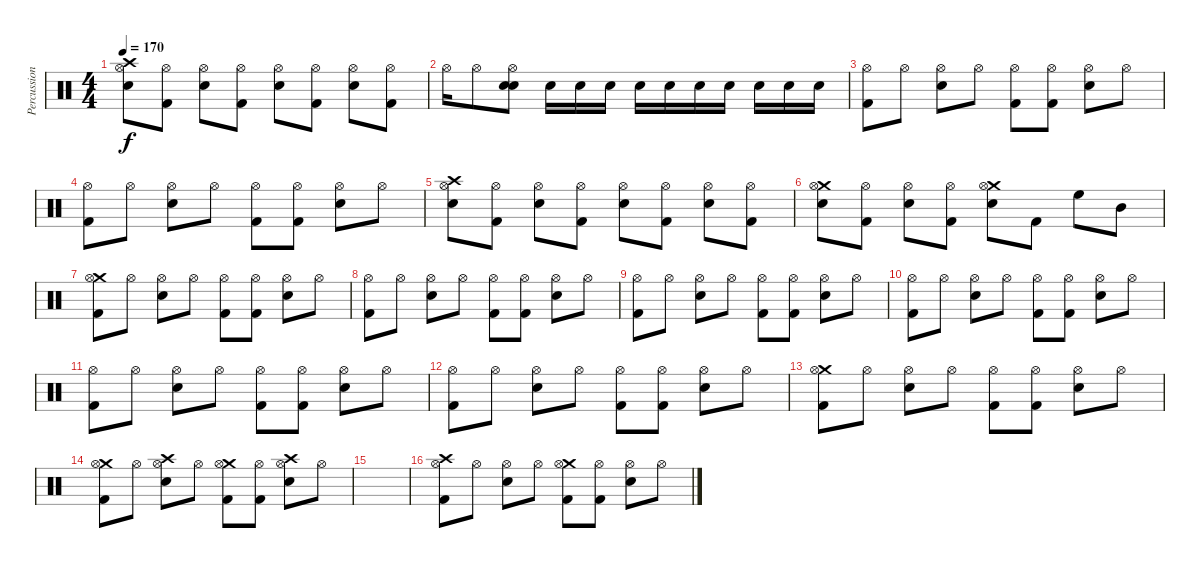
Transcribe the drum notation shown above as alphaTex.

\track ("Percussion" "Percussion") {instrument percussion}
\staff {score}
\articulation defaults
\ts (4 4)
\tempo 170
\clef neutral
\ks c
("Crash high (hit)" "Snare (hit) 2" "Hi-Hat (open)").8{dy f} ("Kick (hit) 2" "Hi-Hat (open)").8 ("Snare (hit) 2" "Hi-Hat (open)").8 ("Kick (hit) 2" "Hi-Hat (open)").8 ("Snare (hit) 2" "Hi-Hat (open)").8 ("Kick (hit) 2" "Hi-Hat (open)").8 ("Snare (hit) 2" "Hi-Hat (open)").8 ("Kick (hit) 2" "Hi-Hat (open)").8 |
"Hi-Hat (open)".16 "Hi-Hat (open)".8 ("Snare (hit)" "Snare (hit) 2" "Hi-Hat (open)").8 "Snare (hit) 2".16 "Snare (hit) 2".16 "Snare (hit) 2".16 "Snare (hit) 2".16 "Snare (hit) 2".16 "Snare (hit) 2".16 "Snare (hit) 2".16 "Snare (hit) 2".16 "Snare (hit) 2".16 "Snare (hit) 2".16 |
("Kick (hit) 2" "Hi-Hat (open)").8 "Hi-Hat (open)".8 ("Snare (hit) 2" "Hi-Hat (open)").8 "Hi-Hat (open)".8 ("Kick (hit) 2" "Hi-Hat (open)").8 ("Kick (hit) 2" "Hi-Hat (open)").8 ("Snare (hit) 2" "Hi-Hat (open)").8 "Hi-Hat (open)".8 |
("Kick (hit) 2" "Hi-Hat (open)").8 "Hi-Hat (open)".8 ("Snare (hit) 2" "Hi-Hat (open)").8 "Hi-Hat (open)".8 ("Kick (hit) 2" "Hi-Hat (open)").8 ("Kick (hit) 2" "Hi-Hat (open)").8 ("Snare (hit) 2" "Hi-Hat (open)").8 "Hi-Hat (open)".8 |
("Crash high (hit)" "Snare (hit) 2" "Hi-Hat (open)").8 ("Kick (hit) 2" "Hi-Hat (open)").8 ("Snare (hit) 2" "Hi-Hat (open)").8 ("Kick (hit) 2" "Hi-Hat (open)").8 ("Snare (hit) 2" "Hi-Hat (open)").8 ("Kick (hit) 2" "Hi-Hat (open)").8 ("Snare (hit) 2" "Hi-Hat (open)").8 ("Kick (hit) 2" "Hi-Hat (open)").8 |
("Crash medium (hit)" "Snare (hit) 2" "Hi-Hat (open)").8 ("Kick (hit) 2" "Hi-Hat (open)").8 ("Snare (hit) 2" "Hi-Hat (open)").8 ("Kick (hit) 2" "Hi-Hat (open)").8 ("Crash medium (hit)" "Snare (hit) 2" "Hi-Hat (open)").8 "Kick (hit) 2".8 "High Floor Tom (hit)".8 "Mid Tom (hit)".8 |
("Crash medium (hit)" "Kick (hit) 2" "Hi-Hat (open)").8 "Hi-Hat (open)".8 ("Snare (hit) 2" "Hi-Hat (open)").8 "Hi-Hat (open)".8 ("Kick (hit) 2" "Hi-Hat (open)").8 ("Kick (hit) 2" "Hi-Hat (open)").8 ("Snare (hit) 2" "Hi-Hat (open)").8 "Hi-Hat (open)".8 |
("Kick (hit) 2" "Hi-Hat (open)").8 "Hi-Hat (open)".8 ("Snare (hit) 2" "Hi-Hat (open)").8 "Hi-Hat (open)".8 ("Kick (hit) 2" "Hi-Hat (open)").8 ("Kick (hit) 2" "Hi-Hat (open)").8 ("Snare (hit) 2" "Hi-Hat (open)").8 "Hi-Hat (open)".8 |
("Kick (hit) 2" "Hi-Hat (open)").8 "Hi-Hat (open)".8 ("Snare (hit) 2" "Hi-Hat (open)").8 "Hi-Hat (open)".8 ("Kick (hit) 2" "Hi-Hat (open)").8 ("Kick (hit) 2" "Hi-Hat (open)").8 ("Snare (hit) 2" "Hi-Hat (open)").8 "Hi-Hat (open)".8 |
("Kick (hit) 2" "Hi-Hat (open)").8 "Hi-Hat (open)".8 ("Snare (hit) 2" "Hi-Hat (open)").8 "Hi-Hat (open)".8 ("Kick (hit) 2" "Hi-Hat (open)").8 ("Kick (hit) 2" "Hi-Hat (open)").8 ("Snare (hit) 2" "Hi-Hat (open)").8 "Hi-Hat (open)".8 |
("Kick (hit) 2" "Hi-Hat (open)").8 "Hi-Hat (open)".8 ("Snare (hit) 2" "Hi-Hat (open)").8 "Hi-Hat (open)".8 ("Kick (hit) 2" "Hi-Hat (open)").8 ("Kick (hit) 2" "Hi-Hat (open)").8 ("Snare (hit) 2" "Hi-Hat (open)").8 "Hi-Hat (open)".8 |
("Kick (hit) 2" "Hi-Hat (open)").8 "Hi-Hat (open)".8 ("Snare (hit) 2" "Hi-Hat (open)").8 "Hi-Hat (open)".8 ("Kick (hit) 2" "Hi-Hat (open)").8 ("Kick (hit) 2" "Hi-Hat (open)").8 ("Snare (hit) 2" "Hi-Hat (open)").8 "Hi-Hat (open)".8 |
("Crash medium (hit)" "Kick (hit) 2" "Hi-Hat (open)").8 "Hi-Hat (open)".8 ("Snare (hit) 2" "Hi-Hat (open)").8 "Hi-Hat (open)".8 ("Kick (hit) 2" "Hi-Hat (open)").8 ("Kick (hit) 2" "Hi-Hat (open)").8 ("Snare (hit) 2" "Hi-Hat (open)").8 "Hi-Hat (open)".8 |
("Crash medium (hit)" "Kick (hit) 2" "Hi-Hat (open)").8 "Hi-Hat (open)".8 ("Crash high (hit)" "Snare (hit) 2" "Hi-Hat (open)").8 "Hi-Hat (open)".8 ("Crash medium (hit)" "Kick (hit) 2" "Hi-Hat (open)").8 ("Kick (hit) 2" "Hi-Hat (open)").8 ("Crash high (hit)" "Snare (hit) 2" "Hi-Hat (open)").8 "Hi-Hat (open)".8 |
|
("Crash high (hit)" "Kick (hit) 2" "Hi-Hat (open)").8 "Hi-Hat (open)".8 ("Snare (hit) 2" "Hi-Hat (open)").8 "Hi-Hat (open)".8 ("Crash medium (hit)" "Kick (hit) 2" "Hi-Hat (open)").8 ("Kick (hit) 2" "Hi-Hat (open)").8 ("Snare (hit) 2" "Hi-Hat (open)").8 "Hi-Hat (open)".8
